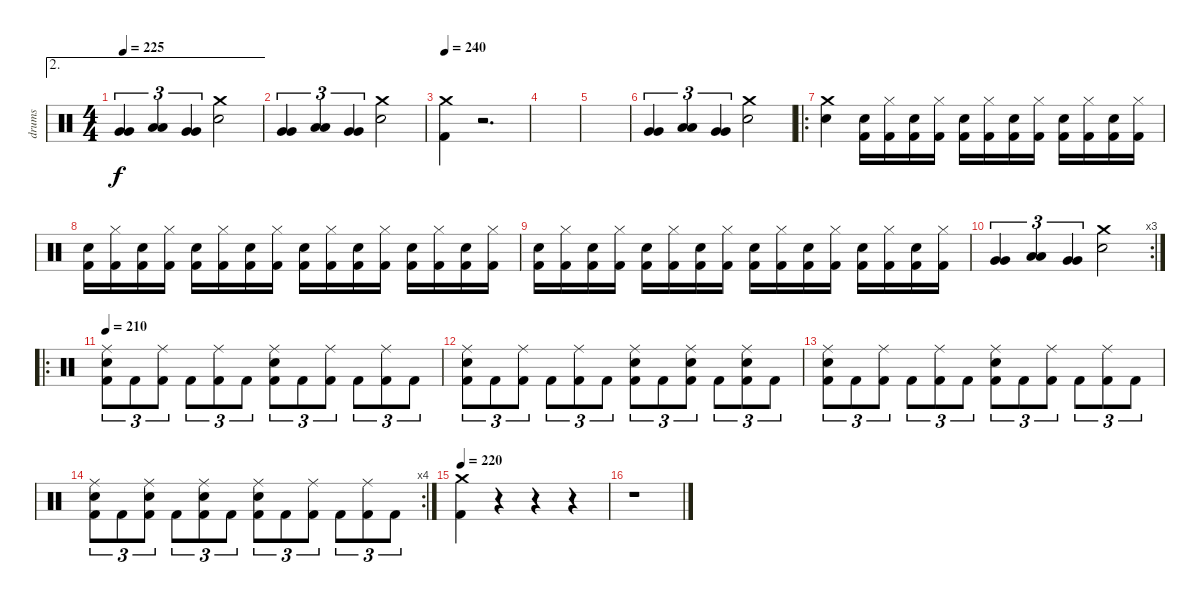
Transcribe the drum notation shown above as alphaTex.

\track ("drums" "drums") {instrument percussion}
\staff {score}
\articulation defaults
\ae 2
\ts (4 4)
\tempo 225
\clef neutral
\ks c
("Very Low Tom (hit)" "Very Low Tom (hit)").4{tu (3 2) dy f} ("Low Floor Tom (hit)" "Low Floor Tom (hit)").4{tu (3 2)} ("Very Low Tom (hit)" "Very Low Tom (hit)").4{tu (3 2)} ("Crash medium (hit)" "Snare (hit) 2").2 |
("Very Low Tom (hit)" "Very Low Tom (hit)").4{tu (3 2)} ("Low Floor Tom (hit)" "Low Floor Tom (hit)").4{tu (3 2)} ("Very Low Tom (hit)" "Very Low Tom (hit)").4{tu (3 2)} ("Crash medium (hit)" "Snare (hit) 2").2 |
\tempo 240
("Crash medium (hit)" "Kick (hit) 2").4 r.2{d} |
|
|
("Very Low Tom (hit)" "Very Low Tom (hit)").4{tu (3 2)} ("Low Floor Tom (hit)" "Low Floor Tom (hit)").4{tu (3 2)} ("Very Low Tom (hit)" "Very Low Tom (hit)").4{tu (3 2)} ("Crash medium (hit)" "Snare (hit) 2").2 |
\ro
("Crash medium (hit)" "Snare (hit) 2").4 ("Snare (hit) 2" "Kick (hit) 2").16 ("Hi-Hat (closed)" "Kick (hit) 2").16 ("Snare (hit) 2" "Kick (hit) 2").16 ("Hi-Hat (closed)" "Kick (hit) 2").16 ("Snare (hit) 2" "Kick (hit) 2").16 ("Hi-Hat (closed)" "Kick (hit) 2").16 ("Snare (hit) 2" "Kick (hit) 2").16 ("Hi-Hat (closed)" "Kick (hit) 2").16 ("Snare (hit) 2" "Kick (hit) 2").16 ("Hi-Hat (closed)" "Kick (hit) 2").16 ("Snare (hit) 2" "Kick (hit) 2").16 ("Hi-Hat (closed)" "Kick (hit) 2").16 |
("Snare (hit) 2" "Kick (hit) 2").16 ("Hi-Hat (closed)" "Kick (hit) 2").16 ("Snare (hit) 2" "Kick (hit) 2").16 ("Hi-Hat (closed)" "Kick (hit) 2").16 ("Snare (hit) 2" "Kick (hit) 2").16 ("Hi-Hat (closed)" "Kick (hit) 2").16 ("Snare (hit) 2" "Kick (hit) 2").16 ("Hi-Hat (closed)" "Kick (hit) 2").16 ("Snare (hit) 2" "Kick (hit) 2").16 ("Hi-Hat (closed)" "Kick (hit) 2").16 ("Snare (hit) 2" "Kick (hit) 2").16 ("Hi-Hat (closed)" "Kick (hit) 2").16 ("Snare (hit) 2" "Kick (hit) 2").16 ("Hi-Hat (closed)" "Kick (hit) 2").16 ("Snare (hit) 2" "Kick (hit) 2").16 ("Hi-Hat (closed)" "Kick (hit) 2").16 |
("Snare (hit) 2" "Kick (hit) 2").16 ("Hi-Hat (closed)" "Kick (hit) 2").16 ("Snare (hit) 2" "Kick (hit) 2").16 ("Hi-Hat (closed)" "Kick (hit) 2").16 ("Snare (hit) 2" "Kick (hit) 2").16 ("Hi-Hat (closed)" "Kick (hit) 2").16 ("Snare (hit) 2" "Kick (hit) 2").16 ("Hi-Hat (closed)" "Kick (hit) 2").16 ("Snare (hit) 2" "Kick (hit) 2").16 ("Hi-Hat (closed)" "Kick (hit) 2").16 ("Snare (hit) 2" "Kick (hit) 2").16 ("Hi-Hat (closed)" "Kick (hit) 2").16 ("Snare (hit) 2" "Kick (hit) 2").16 ("Hi-Hat (closed)" "Kick (hit) 2").16 ("Snare (hit) 2" "Kick (hit) 2").16 ("Hi-Hat (closed)" "Kick (hit) 2").16 |
\rc 3
("Very Low Tom (hit)" "Very Low Tom (hit)").4{tu (3 2)} ("Low Floor Tom (hit)" "Low Floor Tom (hit)").4{tu (3 2)} ("Very Low Tom (hit)" "Very Low Tom (hit)").4{tu (3 2)} ("Crash medium (hit)" "Snare (hit) 2").2 |
\ro
\tempo 210
("Ride (middle)" "Snare (hit) 2" "Kick (hit) 2").8{tu (3 2)} "Kick (hit) 2".8{tu (3 2)} ("Ride (middle)" "Kick (hit) 2").8{tu (3 2)} "Kick (hit) 2".8{tu (3 2)} ("Ride (middle)" "Kick (hit) 2").8{tu (3 2)} "Kick (hit) 2".8{tu (3 2)} ("Ride (middle)" "Snare (hit) 2" "Kick (hit) 2").8{tu (3 2)} "Kick (hit) 2".8{tu (3 2)} ("Ride (middle)" "Kick (hit) 2").8{tu (3 2)} "Kick (hit) 2".8{tu (3 2)} ("Ride (middle)" "Kick (hit) 2").8{tu (3 2)} "Kick (hit) 2".8{tu (3 2)} |
("Ride (middle)" "Snare (hit) 2" "Kick (hit) 2").8{tu (3 2)} "Kick (hit) 2".8{tu (3 2)} ("Ride (middle)" "Kick (hit) 2").8{tu (3 2)} "Kick (hit) 2".8{tu (3 2)} ("Ride (middle)" "Kick (hit) 2").8{tu (3 2)} "Kick (hit) 2".8{tu (3 2)} ("Ride (middle)" "Snare (hit) 2" "Kick (hit) 2").8{tu (3 2)} "Kick (hit) 2".8{tu (3 2)} ("Ride (middle)" "Snare (hit) 2" "Kick (hit) 2").8{tu (3 2)} "Kick (hit) 2".8{tu (3 2)} ("Ride (middle)" "Snare (hit) 2" "Kick (hit) 2").8{tu (3 2)} "Kick (hit) 2".8{tu (3 2)} |
("Ride (middle)" "Snare (hit) 2" "Kick (hit) 2").8{tu (3 2)} "Kick (hit) 2".8{tu (3 2)} ("Ride (middle)" "Kick (hit) 2").8{tu (3 2)} "Kick (hit) 2".8{tu (3 2)} ("Ride (middle)" "Kick (hit) 2").8{tu (3 2)} "Kick (hit) 2".8{tu (3 2)} ("Ride (middle)" "Snare (hit) 2" "Kick (hit) 2").8{tu (3 2)} "Kick (hit) 2".8{tu (3 2)} ("Ride (middle)" "Kick (hit) 2").8{tu (3 2)} "Kick (hit) 2".8{tu (3 2)} ("Ride (middle)" "Kick (hit) 2").8{tu (3 2)} "Kick (hit) 2".8{tu (3 2)} |
\rc 4
("Ride (middle)" "Snare (hit) 2" "Kick (hit) 2").8{tu (3 2)} "Kick (hit) 2".8{tu (3 2)} ("Ride (middle)" "Snare (hit) 2" "Kick (hit) 2").8{tu (3 2)} "Kick (hit) 2".8{tu (3 2)} ("Ride (middle)" "Snare (hit) 2" "Kick (hit) 2").8{tu (3 2)} "Kick (hit) 2".8{tu (3 2)} ("Ride (middle)" "Snare (hit) 2" "Kick (hit) 2").8{tu (3 2)} "Kick (hit) 2".8{tu (3 2)} ("Ride (middle)" "Kick (hit) 2").8{tu (3 2)} "Kick (hit) 2".8{tu (3 2)} ("Ride (middle)" "Kick (hit) 2").8{tu (3 2)} "Kick (hit) 2".8{tu (3 2)} |
\tempo 220
("Crash medium (hit)" "Kick (hit) 2").4 r.4 r.4 r.4 |
r.1
